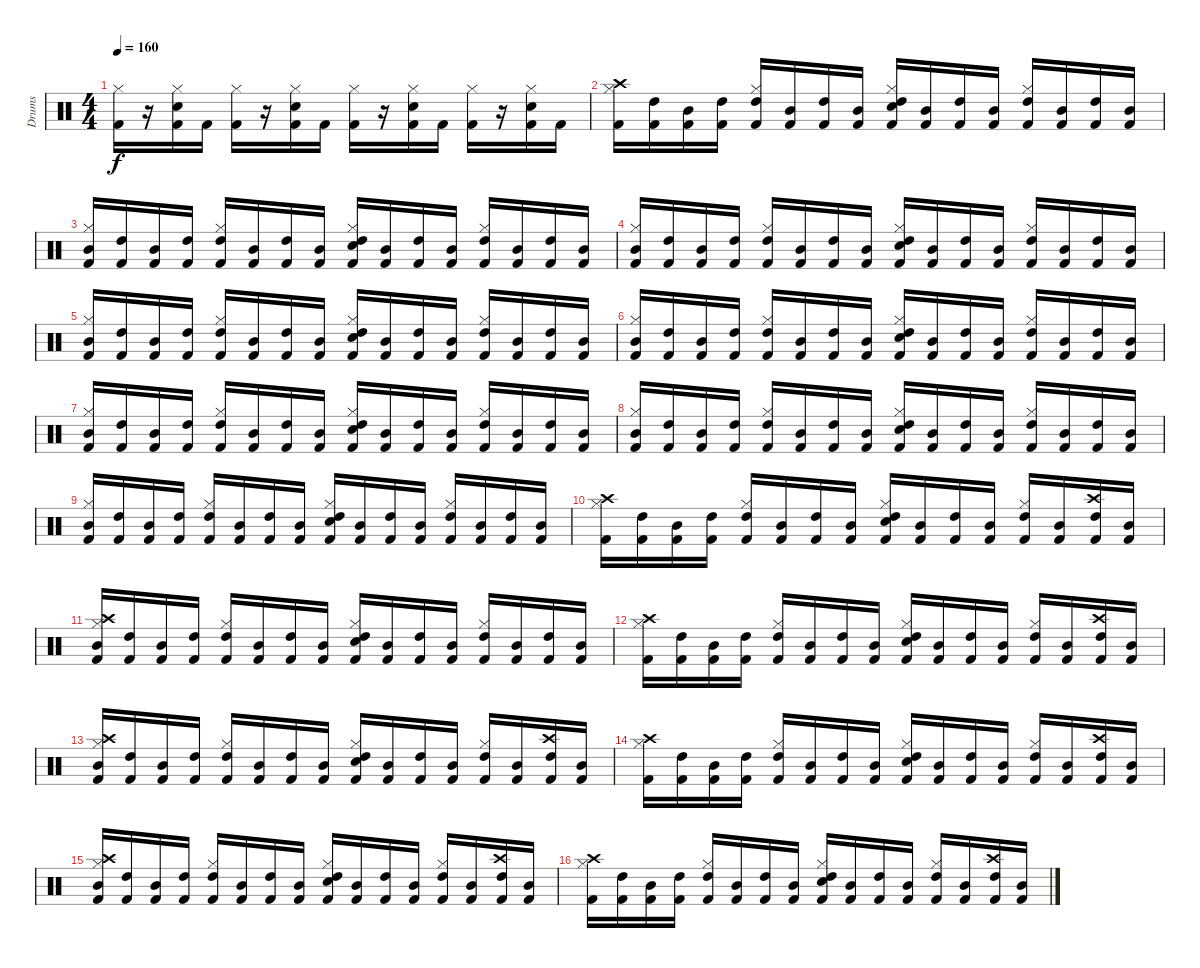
\track ("Drums" "Drums") {instrument percussion}
\staff {score}
\articulation defaults
\ts (4 4)
\tempo 160
\clef neutral
\ks c
("Kick (hit) 2" "Hi-Hat (closed)").16{dy f} r.16 ("Kick (hit) 2" "Hi-Hat (closed)" "Electric Snare (hit)").16 "Kick (hit) 2".16 ("Kick (hit) 2" "Hi-Hat (closed)").16 r.16 ("Kick (hit) 2" "Hi-Hat (closed)" "Electric Snare (hit)").16 "Kick (hit) 2".16 ("Kick (hit) 2" "Hi-Hat (closed)").16 r.16 ("Kick (hit) 2" "Hi-Hat (closed)" "Electric Snare (hit)").16 "Kick (hit) 2".16 ("Kick (hit) 2" "Hi-Hat (closed)").16 r.16 ("Kick (hit) 2" "Hi-Hat (closed)" "Electric Snare (hit)").16 "Kick (hit) 2".16 |
("Kick (hit) 2" "Hi-Hat (closed)" "Crash high (hit)").16 ("Kick (hit) 2" "High Tom (hit)").16 ("Kick (hit) 2" "Mid Tom (hit)").16 ("Kick (hit) 2" "High Tom (hit)").16 ("Kick (hit) 2" "Hi-Hat (closed)" "High Tom (hit)").16 ("Kick (hit) 2" "Mid Tom (hit)").16 ("Kick (hit) 2" "High Tom (hit)").16 ("Kick (hit) 2" "Mid Tom (hit)").16 ("Kick (hit) 2" "Hi-Hat (closed)" "Electric Snare (hit)" "High Tom (hit)").16 ("Kick (hit) 2" "Mid Tom (hit)").16 ("Kick (hit) 2" "High Tom (hit)").16 ("Kick (hit) 2" "Mid Tom (hit)").16 ("Kick (hit) 2" "Hi-Hat (closed)" "High Tom (hit)").16 ("Kick (hit) 2" "Mid Tom (hit)").16 ("Kick (hit) 2" "High Tom (hit)").16 ("Kick (hit) 2" "Mid Tom (hit)").16 |
("Kick (hit) 2" "Hi-Hat (closed)" "Mid Tom (hit)").16 ("Kick (hit) 2" "High Tom (hit)").16 ("Kick (hit) 2" "Mid Tom (hit)").16 ("Kick (hit) 2" "High Tom (hit)").16 ("Kick (hit) 2" "Hi-Hat (closed)" "High Tom (hit)").16 ("Kick (hit) 2" "Mid Tom (hit)").16 ("Kick (hit) 2" "High Tom (hit)").16 ("Kick (hit) 2" "Mid Tom (hit)").16 ("Kick (hit) 2" "Hi-Hat (closed)" "Electric Snare (hit)" "High Tom (hit)").16 ("Kick (hit) 2" "Mid Tom (hit)").16 ("Kick (hit) 2" "High Tom (hit)").16 ("Kick (hit) 2" "Mid Tom (hit)").16 ("Kick (hit) 2" "Hi-Hat (closed)" "High Tom (hit)").16 ("Kick (hit) 2" "Mid Tom (hit)").16 ("Kick (hit) 2" "High Tom (hit)").16 ("Kick (hit) 2" "Mid Tom (hit)").16 |
("Kick (hit) 2" "Hi-Hat (closed)" "Mid Tom (hit)").16 ("Kick (hit) 2" "High Tom (hit)").16 ("Kick (hit) 2" "Mid Tom (hit)").16 ("Kick (hit) 2" "High Tom (hit)").16 ("Kick (hit) 2" "Hi-Hat (closed)" "High Tom (hit)").16 ("Kick (hit) 2" "Mid Tom (hit)").16 ("Kick (hit) 2" "High Tom (hit)").16 ("Kick (hit) 2" "Mid Tom (hit)").16 ("Kick (hit) 2" "Hi-Hat (closed)" "Electric Snare (hit)" "High Tom (hit)").16 ("Kick (hit) 2" "Mid Tom (hit)").16 ("Kick (hit) 2" "High Tom (hit)").16 ("Kick (hit) 2" "Mid Tom (hit)").16 ("Kick (hit) 2" "Hi-Hat (closed)" "High Tom (hit)").16 ("Kick (hit) 2" "Mid Tom (hit)").16 ("Kick (hit) 2" "High Tom (hit)").16 ("Kick (hit) 2" "Mid Tom (hit)").16 |
("Kick (hit) 2" "Hi-Hat (closed)" "Mid Tom (hit)").16 ("Kick (hit) 2" "High Tom (hit)").16 ("Kick (hit) 2" "Mid Tom (hit)").16 ("Kick (hit) 2" "High Tom (hit)").16 ("Kick (hit) 2" "Hi-Hat (closed)" "High Tom (hit)").16 ("Kick (hit) 2" "Mid Tom (hit)").16 ("Kick (hit) 2" "High Tom (hit)").16 ("Kick (hit) 2" "Mid Tom (hit)").16 ("Kick (hit) 2" "Hi-Hat (closed)" "Electric Snare (hit)" "High Tom (hit)").16 ("Kick (hit) 2" "Mid Tom (hit)").16 ("Kick (hit) 2" "High Tom (hit)").16 ("Kick (hit) 2" "Mid Tom (hit)").16 ("Kick (hit) 2" "Hi-Hat (closed)" "High Tom (hit)").16 ("Kick (hit) 2" "Mid Tom (hit)").16 ("Kick (hit) 2" "High Tom (hit)").16 ("Kick (hit) 2" "Mid Tom (hit)").16 |
("Kick (hit) 2" "Hi-Hat (closed)" "Mid Tom (hit)").16 ("Kick (hit) 2" "High Tom (hit)").16 ("Kick (hit) 2" "Mid Tom (hit)").16 ("Kick (hit) 2" "High Tom (hit)").16 ("Kick (hit) 2" "Hi-Hat (closed)" "High Tom (hit)").16 ("Kick (hit) 2" "Mid Tom (hit)").16 ("Kick (hit) 2" "High Tom (hit)").16 ("Kick (hit) 2" "Mid Tom (hit)").16 ("Kick (hit) 2" "Hi-Hat (closed)" "Electric Snare (hit)" "High Tom (hit)").16 ("Kick (hit) 2" "Mid Tom (hit)").16 ("Kick (hit) 2" "High Tom (hit)").16 ("Kick (hit) 2" "Mid Tom (hit)").16 ("Kick (hit) 2" "Hi-Hat (closed)" "High Tom (hit)").16 ("Kick (hit) 2" "Mid Tom (hit)").16 ("Kick (hit) 2" "High Tom (hit)").16 ("Kick (hit) 2" "Mid Tom (hit)").16 |
("Kick (hit) 2" "Hi-Hat (closed)" "Mid Tom (hit)").16 ("Kick (hit) 2" "High Tom (hit)").16 ("Kick (hit) 2" "Mid Tom (hit)").16 ("Kick (hit) 2" "High Tom (hit)").16 ("Kick (hit) 2" "Hi-Hat (closed)" "High Tom (hit)").16 ("Kick (hit) 2" "Mid Tom (hit)").16 ("Kick (hit) 2" "High Tom (hit)").16 ("Kick (hit) 2" "Mid Tom (hit)").16 ("Kick (hit) 2" "Hi-Hat (closed)" "Electric Snare (hit)" "High Tom (hit)").16 ("Kick (hit) 2" "Mid Tom (hit)").16 ("Kick (hit) 2" "High Tom (hit)").16 ("Kick (hit) 2" "Mid Tom (hit)").16 ("Kick (hit) 2" "Hi-Hat (closed)" "High Tom (hit)").16 ("Kick (hit) 2" "Mid Tom (hit)").16 ("Kick (hit) 2" "High Tom (hit)").16 ("Kick (hit) 2" "Mid Tom (hit)").16 |
("Kick (hit) 2" "Hi-Hat (closed)" "Mid Tom (hit)").16 ("Kick (hit) 2" "High Tom (hit)").16 ("Kick (hit) 2" "Mid Tom (hit)").16 ("Kick (hit) 2" "High Tom (hit)").16 ("Kick (hit) 2" "Hi-Hat (closed)" "High Tom (hit)").16 ("Kick (hit) 2" "Mid Tom (hit)").16 ("Kick (hit) 2" "High Tom (hit)").16 ("Kick (hit) 2" "Mid Tom (hit)").16 ("Kick (hit) 2" "Hi-Hat (closed)" "Electric Snare (hit)" "High Tom (hit)").16 ("Kick (hit) 2" "Mid Tom (hit)").16 ("Kick (hit) 2" "High Tom (hit)").16 ("Kick (hit) 2" "Mid Tom (hit)").16 ("Kick (hit) 2" "Hi-Hat (closed)" "High Tom (hit)").16 ("Kick (hit) 2" "Mid Tom (hit)").16 ("Kick (hit) 2" "High Tom (hit)").16 ("Kick (hit) 2" "Mid Tom (hit)").16 |
("Kick (hit) 2" "Hi-Hat (closed)" "Mid Tom (hit)").16 ("Kick (hit) 2" "High Tom (hit)").16 ("Kick (hit) 2" "Mid Tom (hit)").16 ("Kick (hit) 2" "High Tom (hit)").16 ("Kick (hit) 2" "Hi-Hat (closed)" "High Tom (hit)").16 ("Kick (hit) 2" "Mid Tom (hit)").16 ("Kick (hit) 2" "High Tom (hit)").16 ("Kick (hit) 2" "Mid Tom (hit)").16 ("Kick (hit) 2" "Hi-Hat (closed)" "Electric Snare (hit)" "High Tom (hit)").16 ("Kick (hit) 2" "Mid Tom (hit)").16 ("Kick (hit) 2" "High Tom (hit)").16 ("Kick (hit) 2" "Mid Tom (hit)").16 ("Kick (hit) 2" "Hi-Hat (closed)" "High Tom (hit)").16 ("Kick (hit) 2" "Mid Tom (hit)").16 ("Kick (hit) 2" "High Tom (hit)").16 ("Kick (hit) 2" "Mid Tom (hit)").16 |
("Kick (hit) 2" "Hi-Hat (closed)" "Crash high (hit)").16 ("Kick (hit) 2" "High Tom (hit)").16 ("Kick (hit) 2" "Mid Tom (hit)").16 ("Kick (hit) 2" "High Tom (hit)").16 ("Kick (hit) 2" "Hi-Hat (closed)" "High Tom (hit)").16 ("Kick (hit) 2" "Mid Tom (hit)").16 ("Kick (hit) 2" "High Tom (hit)").16 ("Kick (hit) 2" "Mid Tom (hit)").16 ("Kick (hit) 2" "Hi-Hat (closed)" "Electric Snare (hit)" "High Tom (hit)").16 ("Kick (hit) 2" "Mid Tom (hit)").16 ("Kick (hit) 2" "High Tom (hit)").16 ("Kick (hit) 2" "Mid Tom (hit)").16 ("Kick (hit) 2" "Hi-Hat (closed)" "High Tom (hit)").16 ("Kick (hit) 2" "Mid Tom (hit)").16 ("Kick (hit) 2" "High Tom (hit)" "Crash high (hit)").16 ("Kick (hit) 2" "Mid Tom (hit)").16 |
("Kick (hit) 2" "Hi-Hat (closed)" "Mid Tom (hit)" "Crash high (hit)").16 ("Kick (hit) 2" "High Tom (hit)").16 ("Kick (hit) 2" "Mid Tom (hit)").16 ("Kick (hit) 2" "High Tom (hit)").16 ("Kick (hit) 2" "Hi-Hat (closed)" "High Tom (hit)").16 ("Kick (hit) 2" "Mid Tom (hit)").16 ("Kick (hit) 2" "High Tom (hit)").16 ("Kick (hit) 2" "Mid Tom (hit)").16 ("Kick (hit) 2" "Hi-Hat (closed)" "Electric Snare (hit)" "High Tom (hit)").16 ("Kick (hit) 2" "Mid Tom (hit)").16 ("Kick (hit) 2" "High Tom (hit)").16 ("Kick (hit) 2" "Mid Tom (hit)").16 ("Kick (hit) 2" "Hi-Hat (closed)" "High Tom (hit)").16 ("Kick (hit) 2" "Mid Tom (hit)").16 ("Kick (hit) 2" "High Tom (hit)").16 ("Kick (hit) 2" "Mid Tom (hit)").16 |
("Kick (hit) 2" "Hi-Hat (closed)" "Crash high (hit)").16 ("Kick (hit) 2" "High Tom (hit)").16 ("Kick (hit) 2" "Mid Tom (hit)").16 ("Kick (hit) 2" "High Tom (hit)").16 ("Kick (hit) 2" "Hi-Hat (closed)" "High Tom (hit)").16 ("Kick (hit) 2" "Mid Tom (hit)").16 ("Kick (hit) 2" "High Tom (hit)").16 ("Kick (hit) 2" "Mid Tom (hit)").16 ("Kick (hit) 2" "Hi-Hat (closed)" "Electric Snare (hit)" "High Tom (hit)").16 ("Kick (hit) 2" "Mid Tom (hit)").16 ("Kick (hit) 2" "High Tom (hit)").16 ("Kick (hit) 2" "Mid Tom (hit)").16 ("Kick (hit) 2" "Hi-Hat (closed)" "High Tom (hit)").16 ("Kick (hit) 2" "Mid Tom (hit)").16 ("Kick (hit) 2" "High Tom (hit)" "Crash high (hit)").16 ("Kick (hit) 2" "Mid Tom (hit)").16 |
("Kick (hit) 2" "Hi-Hat (closed)" "Mid Tom (hit)" "Crash high (hit)").16 ("Kick (hit) 2" "High Tom (hit)").16 ("Kick (hit) 2" "Mid Tom (hit)").16 ("Kick (hit) 2" "High Tom (hit)").16 ("Kick (hit) 2" "Hi-Hat (closed)" "High Tom (hit)").16 ("Kick (hit) 2" "Mid Tom (hit)").16 ("Kick (hit) 2" "High Tom (hit)").16 ("Kick (hit) 2" "Mid Tom (hit)").16 ("Kick (hit) 2" "Hi-Hat (closed)" "Electric Snare (hit)" "High Tom (hit)").16 ("Kick (hit) 2" "Mid Tom (hit)").16 ("Kick (hit) 2" "High Tom (hit)").16 ("Kick (hit) 2" "Mid Tom (hit)").16 ("Kick (hit) 2" "Hi-Hat (closed)" "High Tom (hit)").16 ("Kick (hit) 2" "Mid Tom (hit)").16 ("Kick (hit) 2" "High Tom (hit)" "Crash high (hit)").16 ("Kick (hit) 2" "Mid Tom (hit)").16 |
("Kick (hit) 2" "Hi-Hat (closed)" "Crash high (hit)").16 ("Kick (hit) 2" "High Tom (hit)").16 ("Kick (hit) 2" "Mid Tom (hit)").16 ("Kick (hit) 2" "High Tom (hit)").16 ("Kick (hit) 2" "Hi-Hat (closed)" "High Tom (hit)").16 ("Kick (hit) 2" "Mid Tom (hit)").16 ("Kick (hit) 2" "High Tom (hit)").16 ("Kick (hit) 2" "Mid Tom (hit)").16 ("Kick (hit) 2" "Hi-Hat (closed)" "Electric Snare (hit)" "High Tom (hit)").16 ("Kick (hit) 2" "Mid Tom (hit)").16 ("Kick (hit) 2" "High Tom (hit)").16 ("Kick (hit) 2" "Mid Tom (hit)").16 ("Kick (hit) 2" "Hi-Hat (closed)" "High Tom (hit)").16 ("Kick (hit) 2" "Mid Tom (hit)").16 ("Kick (hit) 2" "High Tom (hit)" "Crash high (hit)").16 ("Kick (hit) 2" "Mid Tom (hit)").16 |
("Kick (hit) 2" "Hi-Hat (closed)" "Mid Tom (hit)" "Crash high (hit)").16 ("Kick (hit) 2" "High Tom (hit)").16 ("Kick (hit) 2" "Mid Tom (hit)").16 ("Kick (hit) 2" "High Tom (hit)").16 ("Kick (hit) 2" "Hi-Hat (closed)" "High Tom (hit)").16 ("Kick (hit) 2" "Mid Tom (hit)").16 ("Kick (hit) 2" "High Tom (hit)").16 ("Kick (hit) 2" "Mid Tom (hit)").16 ("Kick (hit) 2" "Hi-Hat (closed)" "Electric Snare (hit)" "High Tom (hit)").16 ("Kick (hit) 2" "Mid Tom (hit)").16 ("Kick (hit) 2" "High Tom (hit)").16 ("Kick (hit) 2" "Mid Tom (hit)").16 ("Kick (hit) 2" "Hi-Hat (closed)" "High Tom (hit)").16 ("Kick (hit) 2" "Mid Tom (hit)").16 ("Kick (hit) 2" "High Tom (hit)" "Crash high (hit)").16 ("Kick (hit) 2" "Mid Tom (hit)").16 |
("Kick (hit) 2" "Hi-Hat (closed)" "Crash high (hit)").16 ("Kick (hit) 2" "High Tom (hit)").16 ("Kick (hit) 2" "Mid Tom (hit)").16 ("Kick (hit) 2" "High Tom (hit)").16 ("Kick (hit) 2" "Hi-Hat (closed)" "High Tom (hit)").16 ("Kick (hit) 2" "Mid Tom (hit)").16 ("Kick (hit) 2" "High Tom (hit)").16 ("Kick (hit) 2" "Mid Tom (hit)").16 ("Kick (hit) 2" "Hi-Hat (closed)" "Electric Snare (hit)" "High Tom (hit)").16 ("Kick (hit) 2" "Mid Tom (hit)").16 ("Kick (hit) 2" "High Tom (hit)").16 ("Kick (hit) 2" "Mid Tom (hit)").16 ("Kick (hit) 2" "Hi-Hat (closed)" "High Tom (hit)").16 ("Kick (hit) 2" "Mid Tom (hit)").16 ("Kick (hit) 2" "High Tom (hit)" "Crash high (hit)").16 ("Kick (hit) 2" "Mid Tom (hit)").16
